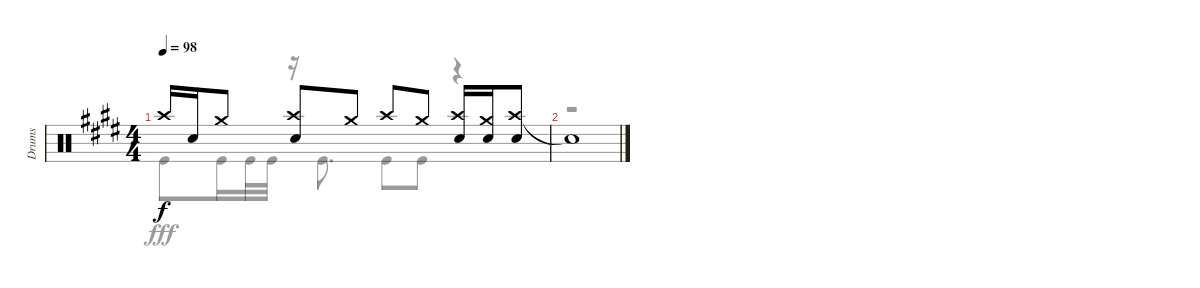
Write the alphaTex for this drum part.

\track ("Drums" "Drums") {instrument percussion}
\staff {score}
\articulation defaults
\voice
\ts (4 4)
\tempo 98
\clef neutral
\ks e "Crash high (hit)".16{dy f} "Snare (hit) 2".16 "Crash medium (hit)".8
("Crash high (hit)" "Snare (hit) 2").8 "Crash medium (hit)".8 "Crash high (hit)".8 "Crash medium (hit)".8 ("Crash high (hit)" "Snare (hit) 2").16 ("Crash medium (hit)" "Snare (hit) 2").16 ("Crash high (hit)" "Snare (hit) 2").8 |
"Snare (hit)"{t}.1
\voice
\clef neutral
\ottava regular
\simile none
\ks e "Kick (hit)".8{dy fff} "Kick (hit)".16 "Kick (hit)".32 "Kick (hit)".32
r.16 "Kick (hit)".8{d} "Kick (hit)".8 "Kick (hit)".8 r.4 |
r.1
